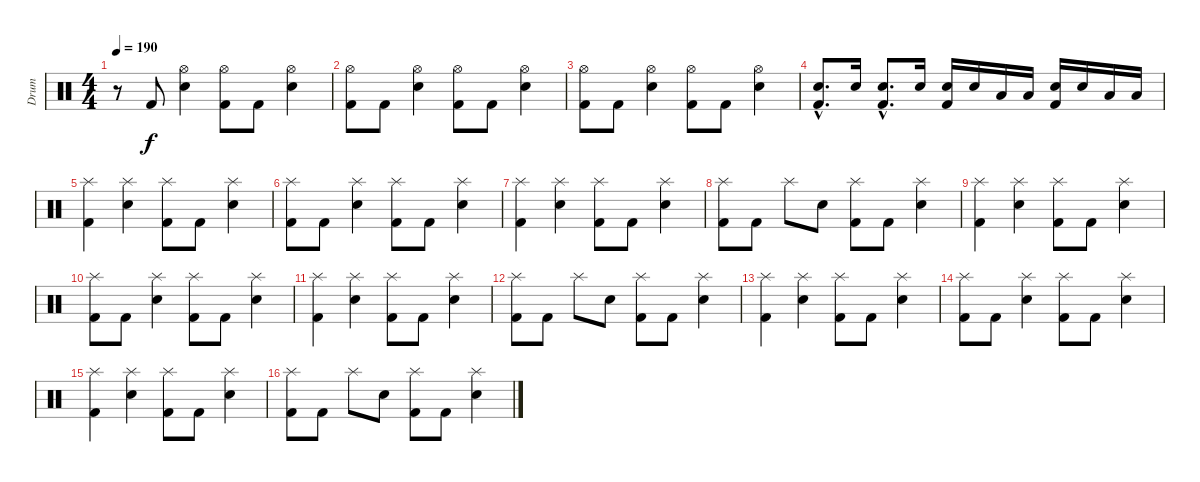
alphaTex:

\track ("Drum" "Drum") {instrument percussion}
\staff {score}
\articulation defaults
\ts (4 4)
\tempo 190
\clef neutral
\ks c
r.8{dy f} "Kick (hit) 2".8 ("Hi-Hat (open)" "Electric Snare (hit)").4 ("Hi-Hat (open)" "Kick (hit) 2").8 "Kick (hit) 2".8 ("Hi-Hat (open)" "Electric Snare (hit)").4 |
("Hi-Hat (open)" "Kick (hit) 2").8 "Kick (hit) 2".8 ("Hi-Hat (open)" "Electric Snare (hit)").4 ("Hi-Hat (open)" "Kick (hit) 2").8 "Kick (hit) 2".8 ("Hi-Hat (open)" "Electric Snare (hit)").4 |
("Hi-Hat (open)" "Kick (hit) 2").8 "Kick (hit) 2".8 ("Hi-Hat (open)" "Electric Snare (hit)").4 ("Hi-Hat (open)" "Kick (hit) 2").8 "Kick (hit) 2".8 ("Hi-Hat (open)" "Electric Snare (hit)").4 |
("Electric Snare (hit)"{hac} "Kick (hit) 2"{hac}).8{d} "Electric Snare (hit)".16 ("Electric Snare (hit)"{hac} "Kick (hit) 2"{hac}).8{d} "Electric Snare (hit)".16 ("Electric Snare (hit)" "Kick (hit) 2").16 "Electric Snare (hit)".16 "Low Tom (hit)".16 "Low Tom (hit)".16 ("Electric Snare (hit)" "Kick (hit) 2").16 "Electric Snare (hit)".16 "Low Tom (hit)".16 "Low Tom (hit)".16 |
("Splash (hit)" "Kick (hit) 2").4 ("Splash (hit)" "Electric Snare (hit)").4 ("Splash (hit)" "Kick (hit) 2").8 "Kick (hit) 2".8 ("Splash (hit)" "Electric Snare (hit)").4 |
("Splash (hit)" "Kick (hit) 2").8 "Kick (hit) 2".8 ("Splash (hit)" "Electric Snare (hit)").4 ("Splash (hit)" "Kick (hit) 2").8 "Kick (hit) 2".8 ("Splash (hit)" "Electric Snare (hit)").4 |
("Splash (hit)" "Kick (hit) 2").4 ("Splash (hit)" "Electric Snare (hit)").4 ("Splash (hit)" "Kick (hit) 2").8 "Kick (hit) 2".8 ("Splash (hit)" "Electric Snare (hit)").4 |
("Splash (hit)" "Kick (hit) 2").8 "Kick (hit) 2".8 "Splash (hit)".8 "Electric Snare (hit)".8 ("Splash (hit)" "Kick (hit) 2").8 "Kick (hit) 2".8 ("Splash (hit)" "Electric Snare (hit)").4 |
("Splash (hit)" "Kick (hit) 2").4 ("Splash (hit)" "Electric Snare (hit)").4 ("Splash (hit)" "Kick (hit) 2").8 "Kick (hit) 2".8 ("Splash (hit)" "Electric Snare (hit)").4 |
("Splash (hit)" "Kick (hit) 2").8 "Kick (hit) 2".8 ("Splash (hit)" "Electric Snare (hit)").4 ("Splash (hit)" "Kick (hit) 2").8 "Kick (hit) 2".8 ("Splash (hit)" "Electric Snare (hit)").4 |
("Splash (hit)" "Kick (hit) 2").4 ("Splash (hit)" "Electric Snare (hit)").4 ("Splash (hit)" "Kick (hit) 2").8 "Kick (hit) 2".8 ("Splash (hit)" "Electric Snare (hit)").4 |
("Splash (hit)" "Kick (hit) 2").8 "Kick (hit) 2".8 "Splash (hit)".8 "Electric Snare (hit)".8 ("Splash (hit)" "Kick (hit) 2").8 "Kick (hit) 2".8 ("Splash (hit)" "Electric Snare (hit)").4 |
("Splash (hit)" "Kick (hit) 2").4 ("Splash (hit)" "Electric Snare (hit)").4 ("Splash (hit)" "Kick (hit) 2").8 "Kick (hit) 2".8 ("Splash (hit)" "Electric Snare (hit)").4 |
("Splash (hit)" "Kick (hit) 2").8 "Kick (hit) 2".8 ("Splash (hit)" "Electric Snare (hit)").4 ("Splash (hit)" "Kick (hit) 2").8 "Kick (hit) 2".8 ("Splash (hit)" "Electric Snare (hit)").4 |
("Splash (hit)" "Kick (hit) 2").4 ("Splash (hit)" "Electric Snare (hit)").4 ("Splash (hit)" "Kick (hit) 2").8 "Kick (hit) 2".8 ("Splash (hit)" "Electric Snare (hit)").4 |
("Splash (hit)" "Kick (hit) 2").8 "Kick (hit) 2".8 "Splash (hit)".8 "Electric Snare (hit)".8 ("Splash (hit)" "Kick (hit) 2").8 "Kick (hit) 2".8 ("Splash (hit)" "Electric Snare (hit)").4
